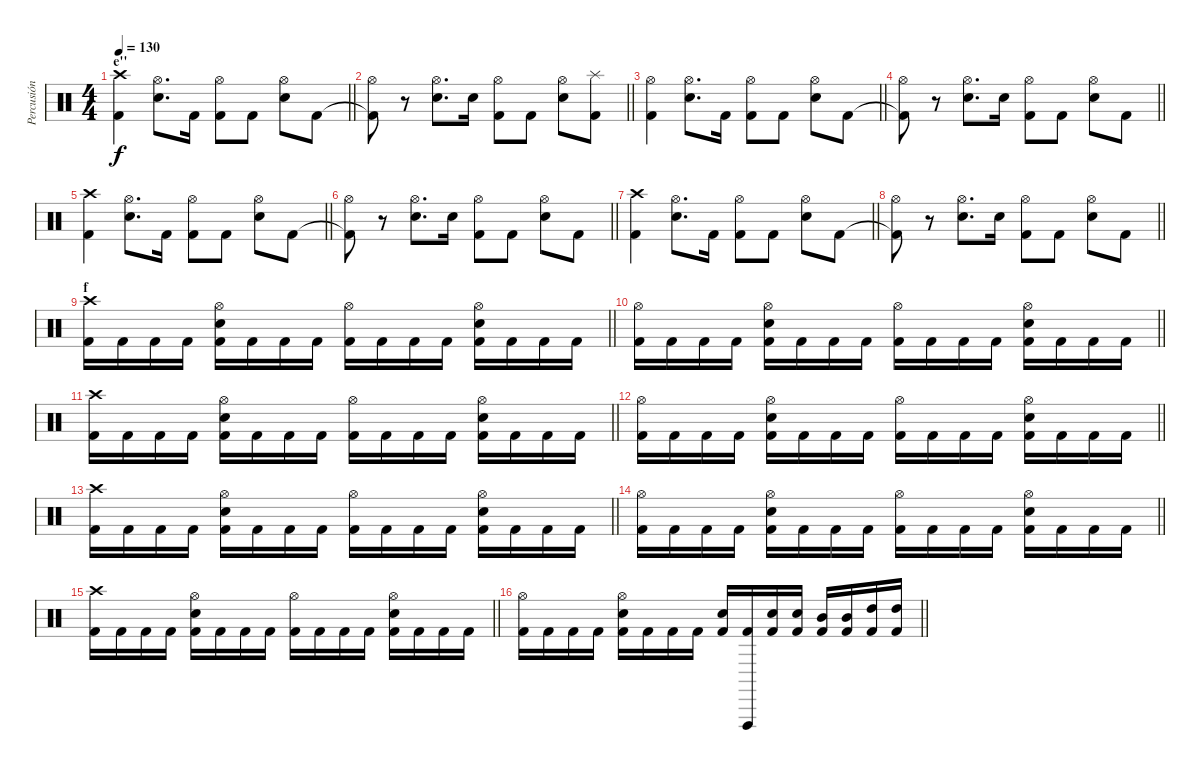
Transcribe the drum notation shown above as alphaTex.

\track ("Percusión" "Percusión") {mute instrument percussion}
\staff {score}
\articulation defaults
\ts (4 4)
\section ("" "e''")
\tempo 130
\clef neutral
\barLineRight lightlight
\ks c
("Crash high (hit)" "Kick (hit) 2").4{dy f} ("Electric Snare (hit)" "Hi-Hat (open)").8{d} "Kick (hit) 2".16 ("Kick (hit) 2" "Hi-Hat (open)").8 "Kick (hit) 2".8 ("Electric Snare (hit)" "Hi-Hat (open)").8 "Kick (hit) 2".8 |
\barLineRight lightlight
("Kick (hit) 2"{t} "Hi-Hat (open)").8 r.8 ("Electric Snare (hit)" "Hi-Hat (open)").8{d} "Electric Snare (hit)".16 ("Kick (hit) 2" "Hi-Hat (open)").8 "Kick (hit) 2".8 ("Electric Snare (hit)" "Hi-Hat (open)").8 ("Kick (hit) 2" "Splash (hit)").8 |
\barLineRight lightlight
("Hi-Hat (open)" "Kick (hit) 2").4 ("Electric Snare (hit)" "Hi-Hat (open)").8{d} "Kick (hit) 2".16 ("Kick (hit) 2" "Hi-Hat (open)").8 "Kick (hit) 2".8 ("Electric Snare (hit)" "Hi-Hat (open)").8 "Kick (hit) 2".8 |
\barLineRight lightlight
("Kick (hit) 2"{t} "Hi-Hat (open)").8 r.8 ("Electric Snare (hit)" "Hi-Hat (open)").8{d} "Electric Snare (hit)".16 ("Kick (hit) 2" "Hi-Hat (open)").8 "Kick (hit) 2".8 ("Electric Snare (hit)" "Hi-Hat (open)").8 "Kick (hit) 2".8 |
\barLineRight lightlight
("Crash high (hit)" "Kick (hit) 2").4 ("Electric Snare (hit)" "Hi-Hat (open)").8{d} "Kick (hit) 2".16 ("Kick (hit) 2" "Hi-Hat (open)").8 "Kick (hit) 2".8 ("Electric Snare (hit)" "Hi-Hat (open)").8 "Kick (hit) 2".8 |
\barLineRight lightlight
("Kick (hit) 2"{t} "Hi-Hat (open)").8 r.8 ("Electric Snare (hit)" "Hi-Hat (open)").8{d} "Electric Snare (hit)".16 ("Kick (hit) 2" "Hi-Hat (open)").8 "Kick (hit) 2".8 ("Electric Snare (hit)" "Hi-Hat (open)").8 "Kick (hit) 2".8 |
\barLineRight lightlight
("Crash high (hit)" "Kick (hit) 2").4 ("Electric Snare (hit)" "Hi-Hat (open)").8{d} "Kick (hit) 2".16 ("Kick (hit) 2" "Hi-Hat (open)").8 "Kick (hit) 2".8 ("Electric Snare (hit)" "Hi-Hat (open)").8 "Kick (hit) 2".8 |
\barLineRight lightlight
("Kick (hit) 2"{t} "Hi-Hat (open)").8 r.8 ("Electric Snare (hit)" "Hi-Hat (open)").8{d} "Electric Snare (hit)".16 ("Kick (hit) 2" "Hi-Hat (open)").8 "Kick (hit) 2".8 ("Electric Snare (hit)" "Hi-Hat (open)").8 "Kick (hit) 2".8 |
\section ("" "f")
\barLineRight lightlight
("Crash high (hit)" "Kick (hit) 2").16 "Kick (hit) 2".16 "Kick (hit) 2".16 "Kick (hit) 2".16 ("Electric Snare (hit)" "Hi-Hat (open)" "Kick (hit) 2").16 "Kick (hit) 2".16 "Kick (hit) 2".16 "Kick (hit) 2".16 ("Kick (hit) 2" "Hi-Hat (open)").16 "Kick (hit) 2".16 "Kick (hit) 2".16 "Kick (hit) 2".16 ("Electric Snare (hit)" "Hi-Hat (open)" "Kick (hit) 2").16 "Kick (hit) 2".16 "Kick (hit) 2".16 "Kick (hit) 2".16 |
\barLineRight lightlight
("Hi-Hat (open)" "Kick (hit) 2").16 "Kick (hit) 2".16 "Kick (hit) 2".16 "Kick (hit) 2".16 ("Electric Snare (hit)" "Hi-Hat (open)" "Kick (hit) 2").16 "Kick (hit) 2".16 "Kick (hit) 2".16 "Kick (hit) 2".16 ("Kick (hit) 2" "Hi-Hat (open)").16 "Kick (hit) 2".16 "Kick (hit) 2".16 "Kick (hit) 2".16 ("Electric Snare (hit)" "Hi-Hat (open)" "Kick (hit) 2").16 "Kick (hit) 2".16 "Kick (hit) 2".16 "Kick (hit) 2".16 |
\barLineRight lightlight
("Crash high (hit)" "Kick (hit) 2").16 "Kick (hit) 2".16 "Kick (hit) 2".16 "Kick (hit) 2".16 ("Electric Snare (hit)" "Hi-Hat (open)" "Kick (hit) 2").16 "Kick (hit) 2".16 "Kick (hit) 2".16 "Kick (hit) 2".16 ("Kick (hit) 2" "Hi-Hat (open)").16 "Kick (hit) 2".16 "Kick (hit) 2".16 "Kick (hit) 2".16 ("Electric Snare (hit)" "Hi-Hat (open)" "Kick (hit) 2").16 "Kick (hit) 2".16 "Kick (hit) 2".16 "Kick (hit) 2".16 |
\barLineRight lightlight
("Hi-Hat (open)" "Kick (hit) 2").16 "Kick (hit) 2".16 "Kick (hit) 2".16 "Kick (hit) 2".16 ("Electric Snare (hit)" "Hi-Hat (open)" "Kick (hit) 2").16 "Kick (hit) 2".16 "Kick (hit) 2".16 "Kick (hit) 2".16 ("Kick (hit) 2" "Hi-Hat (open)").16 "Kick (hit) 2".16 "Kick (hit) 2".16 "Kick (hit) 2".16 ("Electric Snare (hit)" "Hi-Hat (open)" "Kick (hit) 2").16 "Kick (hit) 2".16 "Kick (hit) 2".16 "Kick (hit) 2".16 |
\barLineRight lightlight
("Crash high (hit)" "Kick (hit) 2").16 "Kick (hit) 2".16 "Kick (hit) 2".16 "Kick (hit) 2".16 ("Electric Snare (hit)" "Hi-Hat (open)" "Kick (hit) 2").16 "Kick (hit) 2".16 "Kick (hit) 2".16 "Kick (hit) 2".16 ("Kick (hit) 2" "Hi-Hat (open)").16 "Kick (hit) 2".16 "Kick (hit) 2".16 "Kick (hit) 2".16 ("Electric Snare (hit)" "Hi-Hat (open)" "Kick (hit) 2").16 "Kick (hit) 2".16 "Kick (hit) 2".16 "Kick (hit) 2".16 |
\barLineRight lightlight
("Hi-Hat (open)" "Kick (hit) 2").16 "Kick (hit) 2".16 "Kick (hit) 2".16 "Kick (hit) 2".16 ("Electric Snare (hit)" "Hi-Hat (open)" "Kick (hit) 2").16 "Kick (hit) 2".16 "Kick (hit) 2".16 "Kick (hit) 2".16 ("Kick (hit) 2" "Hi-Hat (open)").16 "Kick (hit) 2".16 "Kick (hit) 2".16 "Kick (hit) 2".16 ("Electric Snare (hit)" "Hi-Hat (open)" "Kick (hit) 2").16 "Kick (hit) 2".16 "Kick (hit) 2".16 "Kick (hit) 2".16 |
\barLineRight lightlight
("Crash high (hit)" "Kick (hit) 2").16 "Kick (hit) 2".16 "Kick (hit) 2".16 "Kick (hit) 2".16 ("Electric Snare (hit)" "Hi-Hat (open)" "Kick (hit) 2").16 "Kick (hit) 2".16 "Kick (hit) 2".16 "Kick (hit) 2".16 ("Kick (hit) 2" "Hi-Hat (open)").16 "Kick (hit) 2".16 "Kick (hit) 2".16 "Kick (hit) 2".16 ("Electric Snare (hit)" "Hi-Hat (open)" "Kick (hit) 2").16 "Kick (hit) 2".16 "Kick (hit) 2".16 "Kick (hit) 2".16 |
\barLineRight lightlight
("Hi-Hat (open)" "Kick (hit) 2").16 "Kick (hit) 2".16 "Kick (hit) 2".16 "Kick (hit) 2".16 ("Electric Snare (hit)" "Hi-Hat (open)" "Kick (hit) 2").16 "Kick (hit) 2".16 "Kick (hit) 2".16 "Kick (hit) 2".16 ("Kick (hit) 2" "Electric Snare (hit)").16 ("Kick (hit) 2" "Vibraslap (hit)").16 ("Kick (hit) 2" "Electric Snare (hit)").16 ("Kick (hit) 2" "Electric Snare (hit)").16 ("Mid Tom (hit)" "Kick (hit) 2").16 ("Kick (hit) 2" "Mid Tom (hit)").16 ("Kick (hit) 2" "High Tom (hit)").16 ("Kick (hit) 2" "High Tom (hit)").16
